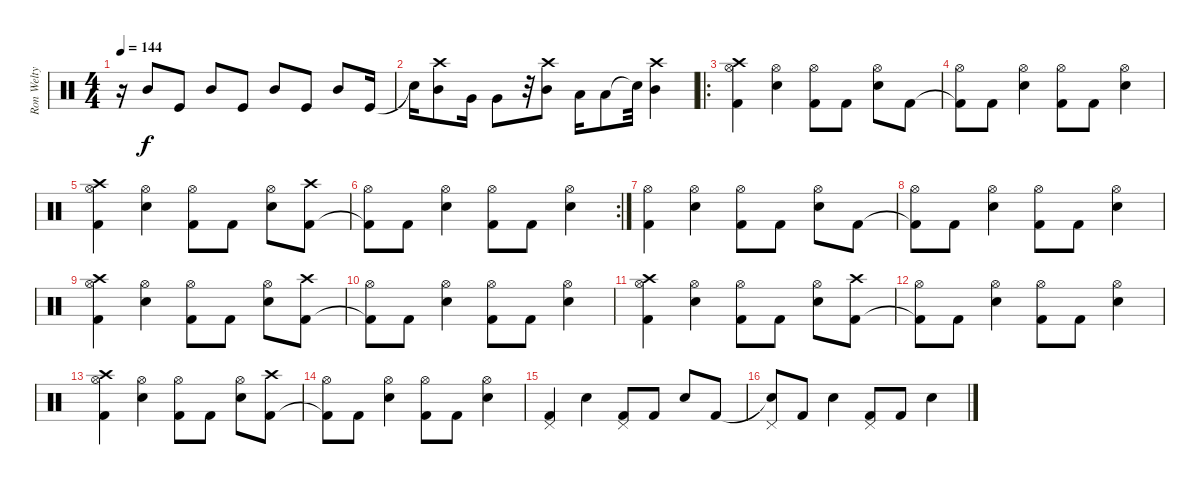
\track ("Ron Welty" "Ron Welty") {instrument percussion}
\staff {score}
\articulation defaults
\ts (4 4)
\tempo 144
\clef neutral
\ks c
r.16{dy f} "Mid Tom (hit)".8 "Kick (hit)".8 "Mid Tom (hit)".8 "Kick (hit)".8 "Mid Tom (hit)".8 "Kick (hit)".8 "Mid Tom (hit)".8 "Kick (hit)".16 |
"Snare (hit) 2"{t}.16 ("Mid Tom (hit)" "Crash high (hit)").8 "Very Low Tom (hit)".16 "Very Low Tom (hit)".8 r.32 ("Mid Tom (hit)" "Crash high (hit)").8 "Low Floor Tom (hit)".16 "Low Floor Tom (hit)".8 "Snare (hit) 2"{t}.32 ("Mid Tom (hit)" "Crash high (hit)").4 |
\ro
("Kick (hit) 2" "Crash high (hit)" "Hi-Hat (open)").4 ("Snare (hit) 2" "Hi-Hat (open)").4 ("Kick (hit) 2" "Hi-Hat (open)").8 "Kick (hit) 2".8 ("Snare (hit) 2" "Hi-Hat (open)").8 "Kick (hit) 2".8 |
("Kick (hit) 2"{t} "Hi-Hat (open)").8 "Kick (hit) 2".8 ("Snare (hit) 2" "Hi-Hat (open)").4 ("Kick (hit) 2" "Hi-Hat (open)").8 "Kick (hit) 2".8 ("Snare (hit) 2" "Hi-Hat (open)").4 |
("Kick (hit) 2" "Crash high (hit)" "Hi-Hat (open)").4 ("Snare (hit) 2" "Hi-Hat (open)").4 ("Kick (hit) 2" "Hi-Hat (open)").8 "Kick (hit) 2".8 ("Snare (hit) 2" "Hi-Hat (open)").8 ("Kick (hit) 2" "Crash high (hit)").8 |
\rc 2
("Kick (hit) 2"{t} "Hi-Hat (open)").8 "Kick (hit) 2".8 ("Snare (hit) 2" "Hi-Hat (open)").4 ("Kick (hit) 2" "Hi-Hat (open)").8 "Kick (hit) 2".8 ("Snare (hit) 2" "Hi-Hat (open)").4 |
("Kick (hit) 2" "Hi-Hat (open)").4 ("Snare (hit) 2" "Hi-Hat (open)").4 ("Kick (hit) 2" "Hi-Hat (open)").8 "Kick (hit) 2".8 ("Snare (hit) 2" "Hi-Hat (open)").8 "Kick (hit) 2".8 |
("Kick (hit) 2"{t} "Hi-Hat (open)").8 "Kick (hit) 2".8 ("Snare (hit) 2" "Hi-Hat (open)").4 ("Kick (hit) 2" "Hi-Hat (open)").8 "Kick (hit) 2".8 ("Snare (hit) 2" "Hi-Hat (open)").4 |
("Kick (hit) 2" "Crash high (hit)" "Hi-Hat (open)").4 ("Snare (hit) 2" "Hi-Hat (open)").4 ("Kick (hit) 2" "Hi-Hat (open)").8 "Kick (hit) 2".8 ("Snare (hit) 2" "Hi-Hat (open)").8 ("Kick (hit) 2" "Crash high (hit)").8 |
("Kick (hit) 2"{t} "Hi-Hat (open)").8 "Kick (hit) 2".8 ("Snare (hit) 2" "Hi-Hat (open)").4 ("Kick (hit) 2" "Hi-Hat (open)").8 "Kick (hit) 2".8 ("Snare (hit) 2" "Hi-Hat (open)").4 |
("Kick (hit) 2" "Crash high (hit)" "Hi-Hat (open)").4 ("Snare (hit) 2" "Hi-Hat (open)").4 ("Kick (hit) 2" "Hi-Hat (open)").8 "Kick (hit) 2".8 ("Snare (hit) 2" "Hi-Hat (open)").8 ("Kick (hit) 2" "Crash high (hit)").8 |
("Kick (hit) 2"{t} "Hi-Hat (open)").8 "Kick (hit) 2".8 ("Snare (hit) 2" "Hi-Hat (open)").4 ("Kick (hit) 2" "Hi-Hat (open)").8 "Kick (hit) 2".8 ("Snare (hit) 2" "Hi-Hat (open)").4 |
("Kick (hit) 2" "Crash high (hit)" "Hi-Hat (open)").4 ("Snare (hit) 2" "Hi-Hat (open)").4 ("Kick (hit) 2" "Hi-Hat (open)").8 "Kick (hit) 2".8 ("Snare (hit) 2" "Hi-Hat (open)").8 ("Kick (hit) 2" "Crash high (hit)").8 |
("Kick (hit) 2"{t} "Hi-Hat (open)").8 "Kick (hit) 2".8 ("Snare (hit) 2" "Hi-Hat (open)").4 ("Kick (hit) 2" "Hi-Hat (open)").8 "Kick (hit) 2".8 ("Snare (hit) 2" "Hi-Hat (open)").4 |
("Kick (hit) 2" "Pedal Hi-Hat (hit)").4 "Snare (hit) 2".4 ("Kick (hit) 2" "Pedal Hi-Hat (hit)").8 "Kick (hit) 2".8 "Snare (hit) 2".8 "Kick (hit) 2".8 |
("Snare (hit)"{t} "Pedal Hi-Hat (hit)").8 "Kick (hit) 2".8 "Snare (hit) 2".4 ("Kick (hit) 2" "Pedal Hi-Hat (hit)").8 "Kick (hit) 2".8 "Snare (hit) 2".4
